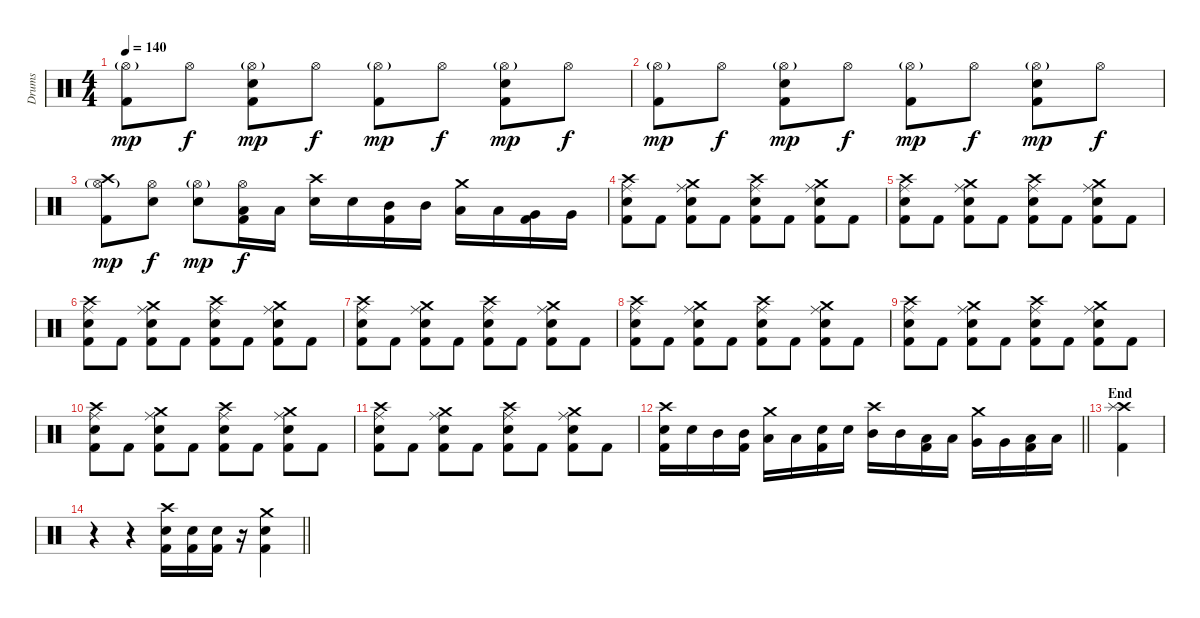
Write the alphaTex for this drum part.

\track ("Drums" "Drums") {instrument percussion}
\staff {score}
\articulation defaults
\ts (4 4)
\tempo 140
\clef neutral
\ks c
("Hi-Hat (open)"{g} "Kick (hit) 2").8{dy mp} "Hi-Hat (open)".8{dy f} ("Hi-Hat (open)"{g} "Snare (hit) 2" "Kick (hit) 2").8{dy mp} "Hi-Hat (open)".8{dy f} ("Hi-Hat (open)"{g} "Kick (hit) 2").8{dy mp} "Hi-Hat (open)".8{dy f} ("Hi-Hat (open)"{g} "Snare (hit) 2" "Kick (hit) 2").8{dy mp} "Hi-Hat (open)".8{dy f} |
("Hi-Hat (open)"{g} "Kick (hit) 2").8{dy mp} "Hi-Hat (open)".8{dy f} ("Hi-Hat (open)"{g} "Snare (hit) 2" "Kick (hit) 2").8{dy mp} "Hi-Hat (open)".8{dy f} ("Hi-Hat (open)"{g} "Kick (hit) 2").8{dy mp} "Hi-Hat (open)".8{dy f} ("Hi-Hat (open)"{g} "Snare (hit) 2" "Kick (hit) 2").8{dy mp} "Hi-Hat (open)".8{dy f} |
("Crash high (hit)" "Hi-Hat (open)"{g} "Kick (hit) 2").8{dy mp} ("Hi-Hat (open)" "Snare (hit) 2").8{dy f} ("Hi-Hat (open)"{g} "Snare (hit) 2").8{dy mp} ("Hi-Hat (open)" "Low Tom (hit)" "Kick (hit) 2").16{dy f} "Low Tom (hit)".16 ("Crash high (hit)" "Snare (hit) 2").16 "Snare (hit) 2".16 ("Mid Tom (hit)" "Kick (hit) 2").16 "Mid Tom (hit)".16 ("Crash medium (hit)" "Low Tom (hit)").16 "Low Tom (hit)".16 ("Very Low Tom (hit)" "Kick (hit) 2").16 "Very Low Tom (hit)".16 |
("Crash high (hit)" "Ride (middle)" "Snare (hit) 2" "Kick (hit) 2").8 "Kick (hit) 2".8 ("Crash medium (hit)" "Ride (middle)" "Snare (hit) 2" "Kick (hit) 2").8 "Kick (hit) 2".8 ("Crash high (hit)" "Ride (middle)" "Snare (hit) 2" "Kick (hit) 2").8 "Kick (hit) 2".8 ("Crash medium (hit)" "Ride (middle)" "Snare (hit) 2" "Kick (hit) 2").8 "Kick (hit) 2".8 |
("Crash high (hit)" "Ride (middle)" "Snare (hit) 2" "Kick (hit) 2").8 "Kick (hit) 2".8 ("Crash medium (hit)" "Ride (middle)" "Snare (hit) 2" "Kick (hit) 2").8 "Kick (hit) 2".8 ("Crash high (hit)" "Ride (middle)" "Snare (hit) 2" "Kick (hit) 2").8 "Kick (hit) 2".8 ("Crash medium (hit)" "Ride (middle)" "Snare (hit) 2" "Kick (hit) 2").8 "Kick (hit) 2".8 |
("Crash high (hit)" "Ride (middle)" "Snare (hit) 2" "Kick (hit) 2").8 "Kick (hit) 2".8 ("Crash medium (hit)" "Ride (middle)" "Snare (hit) 2" "Kick (hit) 2").8 "Kick (hit) 2".8 ("Crash high (hit)" "Ride (middle)" "Snare (hit) 2" "Kick (hit) 2").8 "Kick (hit) 2".8 ("Crash medium (hit)" "Ride (middle)" "Snare (hit) 2" "Kick (hit) 2").8 "Kick (hit) 2".8 |
("Crash high (hit)" "Ride (middle)" "Snare (hit) 2" "Kick (hit) 2").8 "Kick (hit) 2".8 ("Crash medium (hit)" "Ride (middle)" "Snare (hit) 2" "Kick (hit) 2").8 "Kick (hit) 2".8 ("Crash high (hit)" "Ride (middle)" "Snare (hit) 2" "Kick (hit) 2").8 "Kick (hit) 2".8 ("Crash medium (hit)" "Ride (middle)" "Snare (hit) 2" "Kick (hit) 2").8 "Kick (hit) 2".8 |
("Crash high (hit)" "Ride (middle)" "Snare (hit) 2" "Kick (hit) 2").8 "Kick (hit) 2".8 ("Crash medium (hit)" "Ride (middle)" "Snare (hit) 2" "Kick (hit) 2").8 "Kick (hit) 2".8 ("Crash high (hit)" "Ride (middle)" "Snare (hit) 2" "Kick (hit) 2").8 "Kick (hit) 2".8 ("Crash medium (hit)" "Ride (middle)" "Snare (hit) 2" "Kick (hit) 2").8 "Kick (hit) 2".8 |
("Crash high (hit)" "Ride (middle)" "Snare (hit) 2" "Kick (hit) 2").8 "Kick (hit) 2".8 ("Crash medium (hit)" "Ride (middle)" "Snare (hit) 2" "Kick (hit) 2").8 "Kick (hit) 2".8 ("Crash high (hit)" "Ride (middle)" "Snare (hit) 2" "Kick (hit) 2").8 "Kick (hit) 2".8 ("Crash medium (hit)" "Ride (middle)" "Snare (hit) 2" "Kick (hit) 2").8 "Kick (hit) 2".8 |
("Crash high (hit)" "Ride (middle)" "Snare (hit) 2" "Kick (hit) 2").8 "Kick (hit) 2".8 ("Crash medium (hit)" "Ride (middle)" "Snare (hit) 2" "Kick (hit) 2").8 "Kick (hit) 2".8 ("Crash high (hit)" "Ride (middle)" "Snare (hit) 2" "Kick (hit) 2").8 "Kick (hit) 2".8 ("Crash medium (hit)" "Ride (middle)" "Snare (hit) 2" "Kick (hit) 2").8 "Kick (hit) 2".8 |
("Crash high (hit)" "Ride (middle)" "Snare (hit) 2" "Kick (hit) 2").8 "Kick (hit) 2".8 ("Crash medium (hit)" "Ride (middle)" "Snare (hit) 2" "Kick (hit) 2").8 "Kick (hit) 2".8 ("Crash high (hit)" "Ride (middle)" "Snare (hit) 2" "Kick (hit) 2").8 "Kick (hit) 2".8 ("Crash medium (hit)" "Ride (middle)" "Snare (hit) 2" "Kick (hit) 2").8 "Kick (hit) 2".8 |
\barLineRight lightlight
("Crash high (hit)" "Snare (hit) 2" "Kick (hit) 2").16 "Snare (hit) 2".16 "Mid Tom (hit)".16 ("Mid Tom (hit)" "Kick (hit) 2").16 ("Crash medium (hit)" "Low Tom (hit)").16 "Low Tom (hit)".16 ("Snare (hit) 2" "Kick (hit) 2").16 "Snare (hit) 2".16 ("Crash high (hit)" "Mid Tom (hit)").16 "Mid Tom (hit)".16 ("Low Tom (hit)" "Kick (hit) 2").16 "Low Tom (hit)".16 ("Crash medium (hit)" "Very Low Tom (hit)").16 "Very Low Tom (hit)".16 ("Low Floor Tom (hit)" "Kick (hit) 2").16 "Low Floor Tom (hit)".16 |
\section ("" "End")
("Crash high (hit)" "Splash (hit)" "Kick (hit) 2").4 |
\barLineRight lightlight
r.4 r.4 ("Crash high (hit)" "Snare (hit) 2" "Kick (hit) 2").16 ("Snare (hit) 2" "Kick (hit) 2").16 ("Snare (hit) 2" "Kick (hit) 2").16 r.16 ("Crash medium (hit)" "Snare (hit) 2" "Kick (hit) 2").4
